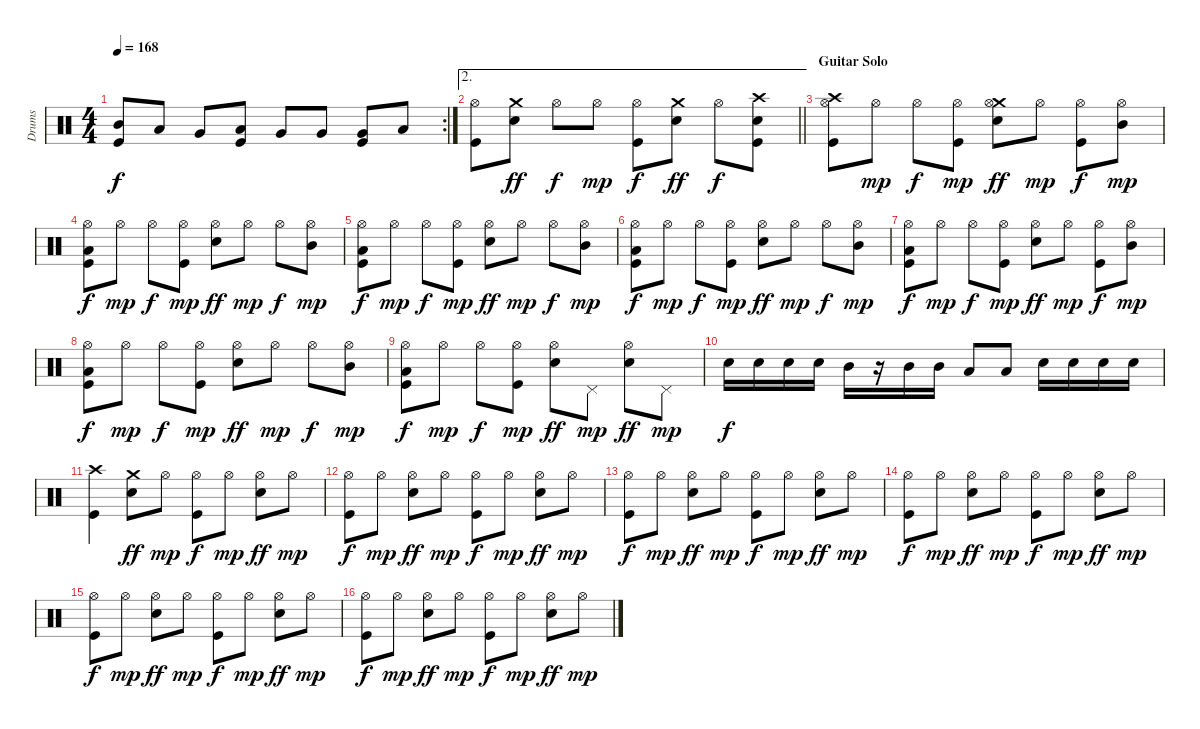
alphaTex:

\track ("Drums" "Drums") {instrument percussion}
\staff {score}
\articulation defaults
\rc 2
\ts (4 4)
\tempo 168
\clef neutral
\ks c
("Mid Tom (hit)" "Kick (hit)").8{dy f} "Low Tom (hit)".8 "Very Low Tom (hit)".8 ("Low Tom (hit)" "Kick (hit)").8 "Very Low Tom (hit)".8 "Very Low Tom (hit)".8 ("Very Low Tom (hit)" "Kick (hit)").8 "Low Floor Tom (hit)".8 |
\ae 2
\barLineRight lightlight
("Hi-Hat (open)" "Kick (hit)").8 ("Crash medium (hit)" "Snare (hit) 2").8{dy ff} "Hi-Hat (open)".8{dy f} "Hi-Hat (open)".8{dy mp} ("Hi-Hat (open)" "Kick (hit)").8{dy f} ("Crash medium (hit)" "Snare (hit) 2").8{dy ff} "Hi-Hat (open)".8{dy f} ("Crash high (hit)" "Snare (hit) 2" "Kick (hit)").8 |
\section ("" "Guitar Solo")
("Crash high (hit)" "Hi-Hat (open)" "Kick (hit)").8 "Hi-Hat (open)".8{dy mp} "Hi-Hat (open)".8{dy f} ("Hi-Hat (open)" "Kick (hit)").8{dy mp} ("Crash medium (hit)" "Hi-Hat (open)" "Snare (hit) 2").8{dy ff} "Hi-Hat (open)".8{dy mp} ("Hi-Hat (open)" "Kick (hit)").8{dy f} ("Mid Tom (hit)" "Hi-Hat (open)").8{dy mp} |
("Low Tom (hit)" "Hi-Hat (open)" "Kick (hit)").8{dy f} "Hi-Hat (open)".8{dy mp} "Hi-Hat (open)".8{dy f} ("Hi-Hat (open)" "Kick (hit)").8{dy mp} ("Hi-Hat (open)" "Snare (hit) 2").8{dy ff} "Hi-Hat (open)".8{dy mp} "Hi-Hat (open)".8{dy f} ("Mid Tom (hit)" "Hi-Hat (open)").8{dy mp} |
("Low Tom (hit)" "Hi-Hat (open)" "Kick (hit)").8{dy f} "Hi-Hat (open)".8{dy mp} "Hi-Hat (open)".8{dy f} ("Hi-Hat (open)" "Kick (hit)").8{dy mp} ("Hi-Hat (open)" "Snare (hit) 2").8{dy ff} "Hi-Hat (open)".8{dy mp} "Hi-Hat (open)".8{dy f} ("Mid Tom (hit)" "Hi-Hat (open)").8{dy mp} |
("Low Tom (hit)" "Hi-Hat (open)" "Kick (hit)").8{dy f} "Hi-Hat (open)".8{dy mp} "Hi-Hat (open)".8{dy f} ("Hi-Hat (open)" "Kick (hit)").8{dy mp} ("Hi-Hat (open)" "Snare (hit) 2").8{dy ff} "Hi-Hat (open)".8{dy mp} "Hi-Hat (open)".8{dy f} ("Mid Tom (hit)" "Hi-Hat (open)").8{dy mp} |
("Low Tom (hit)" "Hi-Hat (open)" "Kick (hit)").8{dy f} "Hi-Hat (open)".8{dy mp} "Hi-Hat (open)".8{dy f} ("Hi-Hat (open)" "Kick (hit)").8{dy mp} ("Hi-Hat (open)" "Snare (hit) 2").8{dy ff} "Hi-Hat (open)".8{dy mp} ("Hi-Hat (open)" "Kick (hit)").8{dy f} ("Mid Tom (hit)" "Hi-Hat (open)").8{dy mp} |
("Low Tom (hit)" "Hi-Hat (open)" "Kick (hit)").8{dy f} "Hi-Hat (open)".8{dy mp} "Hi-Hat (open)".8{dy f} ("Hi-Hat (open)" "Kick (hit)").8{dy mp} ("Hi-Hat (open)" "Snare (hit) 2").8{dy ff} "Hi-Hat (open)".8{dy mp} "Hi-Hat (open)".8{dy f} ("Mid Tom (hit)" "Hi-Hat (open)").8{dy mp} |
("Low Tom (hit)" "Hi-Hat (open)" "Kick (hit)").8{dy f} "Hi-Hat (open)".8{dy mp} "Hi-Hat (open)".8{dy f} ("Hi-Hat (open)" "Kick (hit)").8{dy mp} ("Hi-Hat (open)" "Snare (hit) 2").8{dy ff} "Pedal Hi-Hat (hit)".8{dy mp} ("Hi-Hat (open)" "Snare (hit) 2").8{dy ff} "Pedal Hi-Hat (hit)".8{dy mp} |
"Snare (hit) 2".16{dy f} "Snare (hit) 2".16 "Snare (hit) 2".16 "Snare (hit) 2".16 "Mid Tom (hit)".16 r.16 "Mid Tom (hit)".16 "Mid Tom (hit)".16 "Low Tom (hit)".8 "Low Tom (hit)".8 "Snare (hit) 2".16 "Snare (hit) 2".16 "Snare (hit) 2".16 "Snare (hit) 2".16 |
("Crash high (hit)" "Kick (hit)").4 ("Crash medium (hit)" "Snare (hit) 2").8{dy ff} "Hi-Hat (open)".8{dy mp} ("Hi-Hat (open)" "Kick (hit)").8{dy f} "Hi-Hat (open)".8{dy mp} ("Hi-Hat (open)" "Snare (hit) 2").8{dy ff} "Hi-Hat (open)".8{dy mp} |
("Hi-Hat (open)" "Kick (hit)").8{dy f} "Hi-Hat (open)".8{dy mp} ("Hi-Hat (open)" "Snare (hit) 2").8{dy ff} "Hi-Hat (open)".8{dy mp} ("Hi-Hat (open)" "Kick (hit)").8{dy f} "Hi-Hat (open)".8{dy mp} ("Hi-Hat (open)" "Snare (hit) 2").8{dy ff} "Hi-Hat (open)".8{dy mp} |
("Hi-Hat (open)" "Kick (hit)").8{dy f} "Hi-Hat (open)".8{dy mp} ("Hi-Hat (open)" "Snare (hit) 2").8{dy ff} "Hi-Hat (open)".8{dy mp} ("Hi-Hat (open)" "Kick (hit)").8{dy f} "Hi-Hat (open)".8{dy mp} ("Hi-Hat (open)" "Snare (hit) 2").8{dy ff} "Hi-Hat (open)".8{dy mp} |
("Hi-Hat (open)" "Kick (hit)").8{dy f} "Hi-Hat (open)".8{dy mp} ("Hi-Hat (open)" "Snare (hit) 2").8{dy ff} "Hi-Hat (open)".8{dy mp} ("Hi-Hat (open)" "Kick (hit)").8{dy f} "Hi-Hat (open)".8{dy mp} ("Hi-Hat (open)" "Snare (hit) 2").8{dy ff} "Hi-Hat (open)".8{dy mp} |
("Hi-Hat (open)" "Kick (hit)").8{dy f} "Hi-Hat (open)".8{dy mp} ("Hi-Hat (open)" "Snare (hit) 2").8{dy ff} "Hi-Hat (open)".8{dy mp} ("Hi-Hat (open)" "Kick (hit)").8{dy f} "Hi-Hat (open)".8{dy mp} ("Hi-Hat (open)" "Snare (hit) 2").8{dy ff} "Hi-Hat (open)".8{dy mp} |
("Hi-Hat (open)" "Kick (hit)").8{dy f} "Hi-Hat (open)".8{dy mp} ("Hi-Hat (open)" "Snare (hit) 2").8{dy ff} "Hi-Hat (open)".8{dy mp} ("Hi-Hat (open)" "Kick (hit)").8{dy f} "Hi-Hat (open)".8{dy mp} ("Hi-Hat (open)" "Snare (hit) 2").8{dy ff} "Hi-Hat (open)".8{dy mp}
